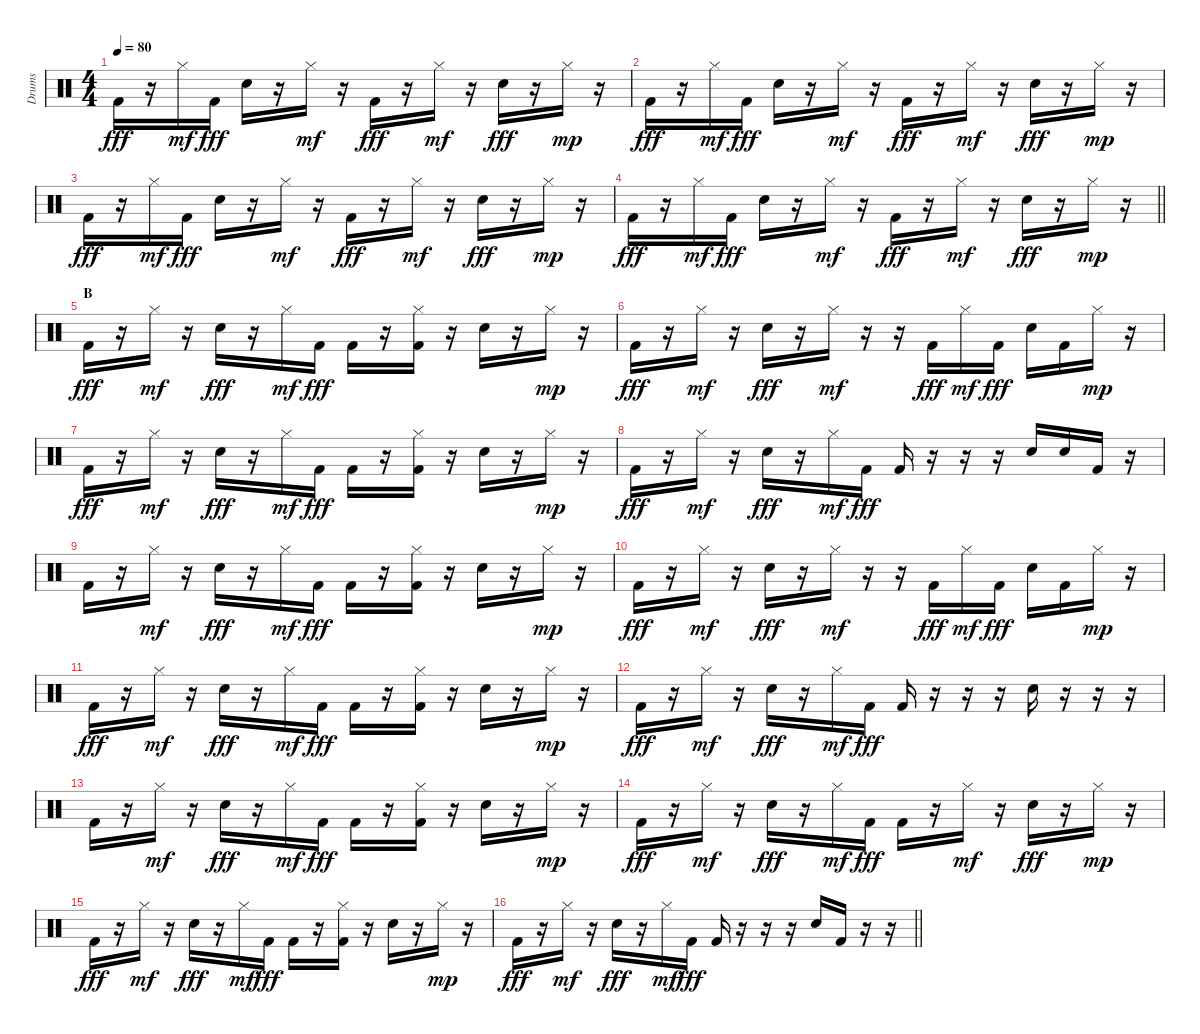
\track ("Drums" "Drums") {instrument percussion}
\staff
\articulation defaults
\ts (4 4)
\tempo 80
\clef neutral
\ks c "Kick (hit) 2".16{dy fff}
r.16 "Hi-Hat (closed)".16{dy mf} "Kick (hit) 2".16{dy fff} "Electric Snare (hit)".16 r.16 "Hi-Hat (closed)".16{dy mf} r.16 "Kick (hit) 2".16{dy fff} r.16 "Hi-Hat (closed)".16{dy mf} r.16 "Electric Snare (hit)".16{dy fff} r.16 "Hi-Hat (closed)".16{dy mp} r.16 |
"Kick (hit) 2".16{dy fff} r.16 "Hi-Hat (closed)".16{dy mf} "Kick (hit) 2".16{dy fff} "Electric Snare (hit)".16 r.16 "Hi-Hat (closed)".16{dy mf} r.16 "Kick (hit) 2".16{dy fff} r.16 "Hi-Hat (closed)".16{dy mf} r.16 "Electric Snare (hit)".16{dy fff} r.16 "Hi-Hat (closed)".16{dy mp} r.16 |
"Kick (hit) 2".16{dy fff} r.16 "Hi-Hat (closed)".16{dy mf} "Kick (hit) 2".16{dy fff} "Electric Snare (hit)".16 r.16 "Hi-Hat (closed)".16{dy mf} r.16 "Kick (hit) 2".16{dy fff} r.16 "Hi-Hat (closed)".16{dy mf} r.16 "Electric Snare (hit)".16{dy fff} r.16 "Hi-Hat (closed)".16{dy mp} r.16 |
\barLineRight lightlight "Kick (hit) 2".16{dy fff}
r.16 "Hi-Hat (closed)".16{dy mf} "Kick (hit) 2".16{dy fff} "Electric Snare (hit)".16 r.16 "Hi-Hat (closed)".16{dy mf} r.16 "Kick (hit) 2".16{dy fff} r.16 "Hi-Hat (closed)".16{dy mf} r.16 "Electric Snare (hit)".16{dy fff} r.16 "Hi-Hat (closed)".16{dy mp} r.16 |
\section ("" "B")
"Kick (hit) 2".16{dy fff} r.16 "Hi-Hat (closed)".16{dy mf} r.16 "Electric Snare (hit)".16{dy fff} r.16 "Hi-Hat (closed)".16{dy mf} "Kick (hit) 2".16{dy fff} "Kick (hit) 2".16 r.16 ("Hi-Hat (closed)" "Kick (hit) 2").16 r.16 "Electric Snare (hit)".16 r.16 "Hi-Hat (closed)".16{dy mp} r.16 |
"Kick (hit) 2".16{dy fff} r.16 "Hi-Hat (closed)".16{dy mf} r.16 "Electric Snare (hit)".16{dy fff} r.16 "Hi-Hat (closed)".16{dy mf} r.16 r.16 "Kick (hit) 2".16{dy fff} "Hi-Hat (closed)".16{dy mf} "Kick (hit) 2".16{dy fff} "Electric Snare (hit)".16 "Kick (hit) 2".16 "Hi-Hat (closed)".16{dy mp} r.16 |
"Kick (hit) 2".16{dy fff} r.16 "Hi-Hat (closed)".16{dy mf} r.16 "Electric Snare (hit)".16{dy fff} r.16 "Hi-Hat (closed)".16{dy mf} "Kick (hit) 2".16{dy fff} "Kick (hit) 2".16 r.16 ("Hi-Hat (closed)" "Kick (hit) 2").16 r.16 "Electric Snare (hit)".16 r.16 "Hi-Hat (closed)".16{dy mp} r.16 |
"Kick (hit) 2".16{dy fff} r.16 "Hi-Hat (closed)".16{dy mf} r.16 "Electric Snare (hit)".16{dy fff} r.16 "Hi-Hat (closed)".16{dy mf} "Kick (hit) 2".16{dy fff} "Kick (hit) 2".16 r.16 r.16 r.16 "Electric Snare (hit)".16 "Electric Snare (hit)".16 "Kick (hit) 2".16 r.16 |
"Kick (hit) 2".16 r.16 "Hi-Hat (closed)".16{dy mf} r.16 "Electric Snare (hit)".16{dy fff} r.16 "Hi-Hat (closed)".16{dy mf} "Kick (hit) 2".16{dy fff} "Kick (hit) 2".16 r.16 ("Hi-Hat (closed)" "Kick (hit) 2").16 r.16 "Electric Snare (hit)".16 r.16 "Hi-Hat (closed)".16{dy mp} r.16 |
"Kick (hit) 2".16{dy fff} r.16 "Hi-Hat (closed)".16{dy mf} r.16 "Electric Snare (hit)".16{dy fff} r.16 "Hi-Hat (closed)".16{dy mf} r.16 r.16 "Kick (hit) 2".16{dy fff} "Hi-Hat (closed)".16{dy mf} "Kick (hit) 2".16{dy fff} "Electric Snare (hit)".16 "Kick (hit) 2".16 "Hi-Hat (closed)".16{dy mp} r.16 |
"Kick (hit) 2".16{dy fff} r.16 "Hi-Hat (closed)".16{dy mf} r.16 "Electric Snare (hit)".16{dy fff} r.16 "Hi-Hat (closed)".16{dy mf} "Kick (hit) 2".16{dy fff} "Kick (hit) 2".16 r.16 ("Hi-Hat (closed)" "Kick (hit) 2").16 r.16 "Electric Snare (hit)".16 r.16 "Hi-Hat (closed)".16{dy mp} r.16 |
"Kick (hit) 2".16{dy fff} r.16 "Hi-Hat (closed)".16{dy mf} r.16 "Electric Snare (hit)".16{dy fff} r.16 "Hi-Hat (closed)".16{dy mf} "Kick (hit) 2".16{dy fff} "Kick (hit) 2".16 r.16 r.16 r.16 "Electric Snare (hit)".16 r.16 r.16 r.16 |
"Kick (hit) 2".16 r.16 "Hi-Hat (closed)".16{dy mf} r.16 "Electric Snare (hit)".16{dy fff} r.16 "Hi-Hat (closed)".16{dy mf} "Kick (hit) 2".16{dy fff} "Kick (hit) 2".16 r.16 ("Hi-Hat (closed)" "Kick (hit) 2").16 r.16 "Electric Snare (hit)".16 r.16 "Hi-Hat (closed)".16{dy mp} r.16 |
"Kick (hit) 2".16{dy fff} r.16 "Hi-Hat (closed)".16{dy mf} r.16 "Electric Snare (hit)".16{dy fff} r.16 "Hi-Hat (closed)".16{dy mf} "Kick (hit) 2".16{dy fff} "Kick (hit) 2".16 r.16 "Hi-Hat (closed)".16{dy mf} r.16 "Electric Snare (hit)".16{dy fff} r.16 "Hi-Hat (closed)".16{dy mp} r.16 |
"Kick (hit) 2".16{dy fff} r.16 "Hi-Hat (closed)".16{dy mf} r.16 "Electric Snare (hit)".16{dy fff} r.16 "Hi-Hat (closed)".16{dy mf} "Kick (hit) 2".16{dy fff} "Kick (hit) 2".16 r.16 ("Hi-Hat (closed)" "Kick (hit) 2").16 r.16 "Electric Snare (hit)".16 r.16 "Hi-Hat (closed)".16{dy mp} r.16 |
\barLineRight lightlight "Kick (hit) 2".16{dy fff}
r.16 "Hi-Hat (closed)".16{dy mf} r.16 "Electric Snare (hit)".16{dy fff} r.16 "Hi-Hat (closed)".16{dy mf} "Kick (hit) 2".16{dy fff} "Kick (hit) 2".16 r.16 r.16 r.16 "Electric Snare (hit)".16 "Kick (hit) 2".16 r.16 r.16
